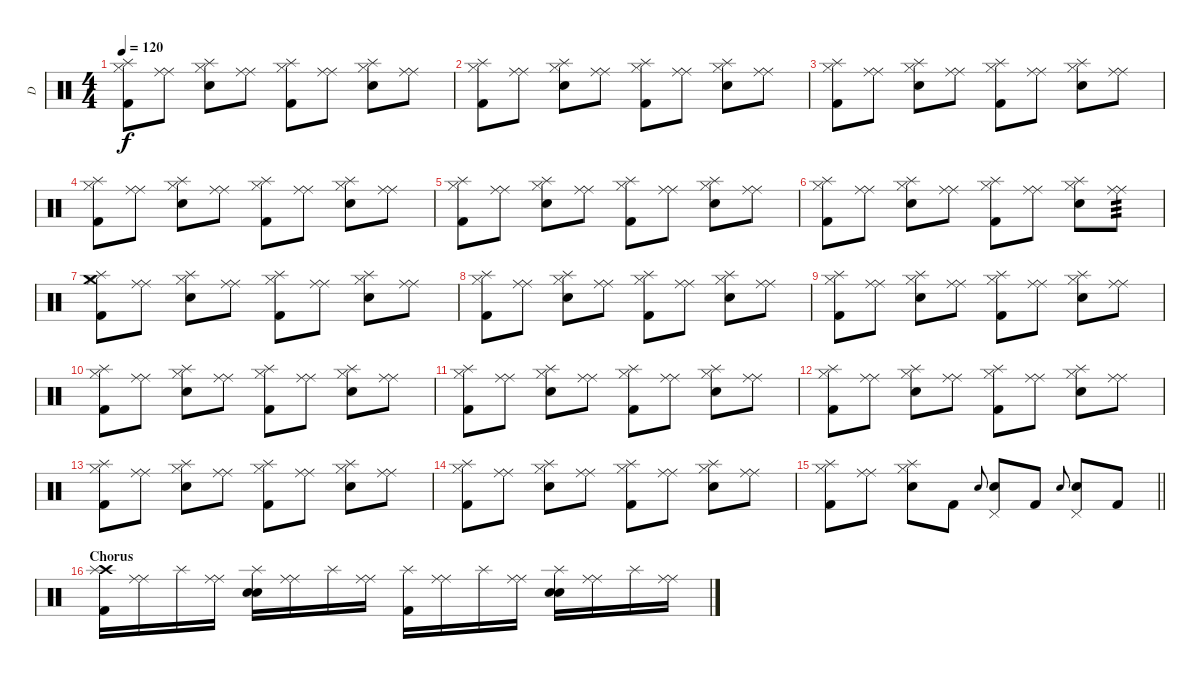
\track ("D" "D") {instrument percussion}
\staff {score}
\articulation defaults
\ts (4 4)
\tempo 120
\clef neutral
\ks c
("Kick (hit) 2" "Splash (hit)" "Hi-Hat (closed)").8{dy f} ("Ride (middle)" "Ride (middle)").8 ("Electric Snare (hit)" "Splash (hit)" "Hi-Hat (closed)").8 ("Ride (middle)" "Ride (middle)").8 ("Kick (hit) 2" "Splash (hit)" "Hi-Hat (closed)").8 ("Ride (middle)" "Ride (middle)").8 ("Electric Snare (hit)" "Splash (hit)" "Hi-Hat (closed)").8 ("Ride (middle)" "Ride (middle)").8 |
("Kick (hit) 2" "Splash (hit)" "Hi-Hat (closed)").8 ("Ride (middle)" "Ride (middle)").8 ("Electric Snare (hit)" "Splash (hit)" "Hi-Hat (closed)").8 ("Ride (middle)" "Ride (middle)").8 ("Kick (hit) 2" "Splash (hit)" "Hi-Hat (closed)").8 ("Ride (middle)" "Ride (middle)").8 ("Electric Snare (hit)" "Splash (hit)" "Hi-Hat (closed)").8 ("Ride (middle)" "Ride (middle)").8 |
("Kick (hit) 2" "Splash (hit)" "Hi-Hat (closed)").8 ("Ride (middle)" "Ride (middle)").8 ("Electric Snare (hit)" "Splash (hit)" "Hi-Hat (closed)").8 ("Ride (middle)" "Ride (middle)").8 ("Kick (hit) 2" "Splash (hit)" "Hi-Hat (closed)").8 ("Ride (middle)" "Ride (middle)").8 ("Electric Snare (hit)" "Splash (hit)" "Hi-Hat (closed)").8 ("Ride (middle)" "Ride (middle)").8 |
("Kick (hit) 2" "Splash (hit)" "Hi-Hat (closed)").8 ("Ride (middle)" "Ride (middle)").8 ("Electric Snare (hit)" "Splash (hit)" "Hi-Hat (closed)").8 ("Ride (middle)" "Ride (middle)").8 ("Kick (hit) 2" "Splash (hit)" "Hi-Hat (closed)").8 ("Ride (middle)" "Ride (middle)").8 ("Electric Snare (hit)" "Splash (hit)" "Hi-Hat (closed)").8 ("Ride (middle)" "Ride (middle)").8 |
("Kick (hit) 2" "Splash (hit)" "Hi-Hat (closed)").8 ("Ride (middle)" "Ride (middle)").8 ("Electric Snare (hit)" "Splash (hit)" "Hi-Hat (closed)").8 ("Ride (middle)" "Ride (middle)").8 ("Kick (hit) 2" "Splash (hit)" "Hi-Hat (closed)").8 ("Ride (middle)" "Ride (middle)").8 ("Electric Snare (hit)" "Splash (hit)" "Hi-Hat (closed)").8 ("Ride (middle)" "Ride (middle)").8 |
("Kick (hit) 2" "Splash (hit)" "Hi-Hat (closed)").8 ("Ride (middle)" "Ride (middle)").8 ("Electric Snare (hit)" "Splash (hit)" "Hi-Hat (closed)").8 ("Ride (middle)" "Ride (middle)").8 ("Kick (hit) 2" "Splash (hit)" "Hi-Hat (closed)").8 ("Ride (middle)" "Ride (middle)").8 ("Electric Snare (hit)" "Splash (hit)" "Hi-Hat (closed)").8 ("Ride (middle)" "Ride (middle)").8{tp 3} |
("Crash medium (hit)" "Kick (hit) 2" "Splash (hit)" "Hi-Hat (closed)").8 ("Ride (middle)" "Ride (middle)").8 ("Electric Snare (hit)" "Splash (hit)" "Hi-Hat (closed)").8 ("Ride (middle)" "Ride (middle)").8 ("Kick (hit) 2" "Splash (hit)" "Hi-Hat (closed)").8 ("Ride (middle)" "Ride (middle)").8 ("Electric Snare (hit)" "Splash (hit)" "Hi-Hat (closed)").8 ("Ride (middle)" "Ride (middle)").8 |
("Kick (hit) 2" "Splash (hit)" "Hi-Hat (closed)").8 ("Ride (middle)" "Ride (middle)").8 ("Electric Snare (hit)" "Splash (hit)" "Hi-Hat (closed)").8 ("Ride (middle)" "Ride (middle)").8 ("Kick (hit) 2" "Splash (hit)" "Hi-Hat (closed)").8 ("Ride (middle)" "Ride (middle)").8 ("Electric Snare (hit)" "Splash (hit)" "Hi-Hat (closed)").8 ("Ride (middle)" "Ride (middle)").8 |
("Kick (hit) 2" "Splash (hit)" "Hi-Hat (closed)").8 ("Ride (middle)" "Ride (middle)").8 ("Electric Snare (hit)" "Splash (hit)" "Hi-Hat (closed)").8 ("Ride (middle)" "Ride (middle)").8 ("Kick (hit) 2" "Splash (hit)" "Hi-Hat (closed)").8 ("Ride (middle)" "Ride (middle)").8 ("Electric Snare (hit)" "Splash (hit)" "Hi-Hat (closed)").8 ("Ride (middle)" "Ride (middle)").8 |
("Kick (hit) 2" "Splash (hit)" "Hi-Hat (closed)").8 ("Ride (middle)" "Ride (middle)").8 ("Electric Snare (hit)" "Splash (hit)" "Hi-Hat (closed)").8 ("Ride (middle)" "Ride (middle)").8 ("Kick (hit) 2" "Splash (hit)" "Hi-Hat (closed)").8 ("Ride (middle)" "Ride (middle)").8 ("Electric Snare (hit)" "Splash (hit)" "Hi-Hat (closed)").8 ("Ride (middle)" "Ride (middle)").8 |
("Kick (hit) 2" "Splash (hit)" "Hi-Hat (closed)").8 ("Ride (middle)" "Ride (middle)").8 ("Electric Snare (hit)" "Splash (hit)" "Hi-Hat (closed)").8 ("Ride (middle)" "Ride (middle)").8 ("Kick (hit) 2" "Splash (hit)" "Hi-Hat (closed)").8 ("Ride (middle)" "Ride (middle)").8 ("Electric Snare (hit)" "Splash (hit)" "Hi-Hat (closed)").8 ("Ride (middle)" "Ride (middle)").8 |
("Kick (hit) 2" "Splash (hit)" "Hi-Hat (closed)").8 ("Ride (middle)" "Ride (middle)").8 ("Electric Snare (hit)" "Splash (hit)" "Hi-Hat (closed)").8 ("Ride (middle)" "Ride (middle)").8 ("Kick (hit) 2" "Splash (hit)" "Hi-Hat (closed)").8 ("Ride (middle)" "Ride (middle)").8 ("Electric Snare (hit)" "Splash (hit)" "Hi-Hat (closed)").8 ("Ride (middle)" "Ride (middle)").8 |
("Kick (hit) 2" "Splash (hit)" "Hi-Hat (closed)").8 ("Ride (middle)" "Ride (middle)").8 ("Electric Snare (hit)" "Splash (hit)" "Hi-Hat (closed)").8 ("Ride (middle)" "Ride (middle)").8 ("Kick (hit) 2" "Splash (hit)" "Hi-Hat (closed)").8 ("Ride (middle)" "Ride (middle)").8 ("Electric Snare (hit)" "Splash (hit)" "Hi-Hat (closed)").8 ("Ride (middle)" "Ride (middle)").8 |
("Kick (hit) 2" "Splash (hit)" "Hi-Hat (closed)").8 ("Ride (middle)" "Ride (middle)").8 ("Electric Snare (hit)" "Splash (hit)" "Hi-Hat (closed)").8 ("Ride (middle)" "Ride (middle)").8 ("Kick (hit) 2" "Splash (hit)" "Hi-Hat (closed)").8 ("Ride (middle)" "Ride (middle)").8 ("Electric Snare (hit)" "Splash (hit)" "Hi-Hat (closed)").8 ("Ride (middle)" "Ride (middle)").8 |
\barLineRight lightlight
("Kick (hit) 2" "Splash (hit)" "Hi-Hat (closed)").8 ("Ride (middle)" "Ride (middle)").8 ("Electric Snare (hit)" "Splash (hit)" "Hi-Hat (closed)").8 "Kick (hit) 2".8 "Electric Snare (hit)".8{gr onbeat} ("Electric Snare (hit)" "Pedal Hi-Hat (hit)").8 "Kick (hit) 2".8 "Electric Snare (hit)".8{gr onbeat} ("Electric Snare (hit)" "Pedal Hi-Hat (hit)").8 "Kick (hit) 2".8 |
\section ("" "Chorus")
("Crash high (hit)" "Kick (hit) 2" "Splash (hit)").16 ("Ride (middle)" "Ride (middle)").16 "Splash (hit)".16 ("Ride (middle)" "Ride (middle)").16 ("Electric Snare (hit)" "Electric Snare (hit)" "Splash (hit)").16 ("Ride (middle)" "Ride (middle)").16 "Splash (hit)".16 ("Ride (middle)" "Ride (middle)").16 ("Kick (hit) 2" "Splash (hit)").16 ("Ride (middle)" "Ride (middle)").16 "Splash (hit)".16 ("Ride (middle)" "Ride (middle)").16 ("Electric Snare (hit)" "Electric Snare (hit)" "Splash (hit)").16 ("Ride (middle)" "Ride (middle)").16 "Splash (hit)".16 ("Ride (middle)" "Ride (middle)").16
